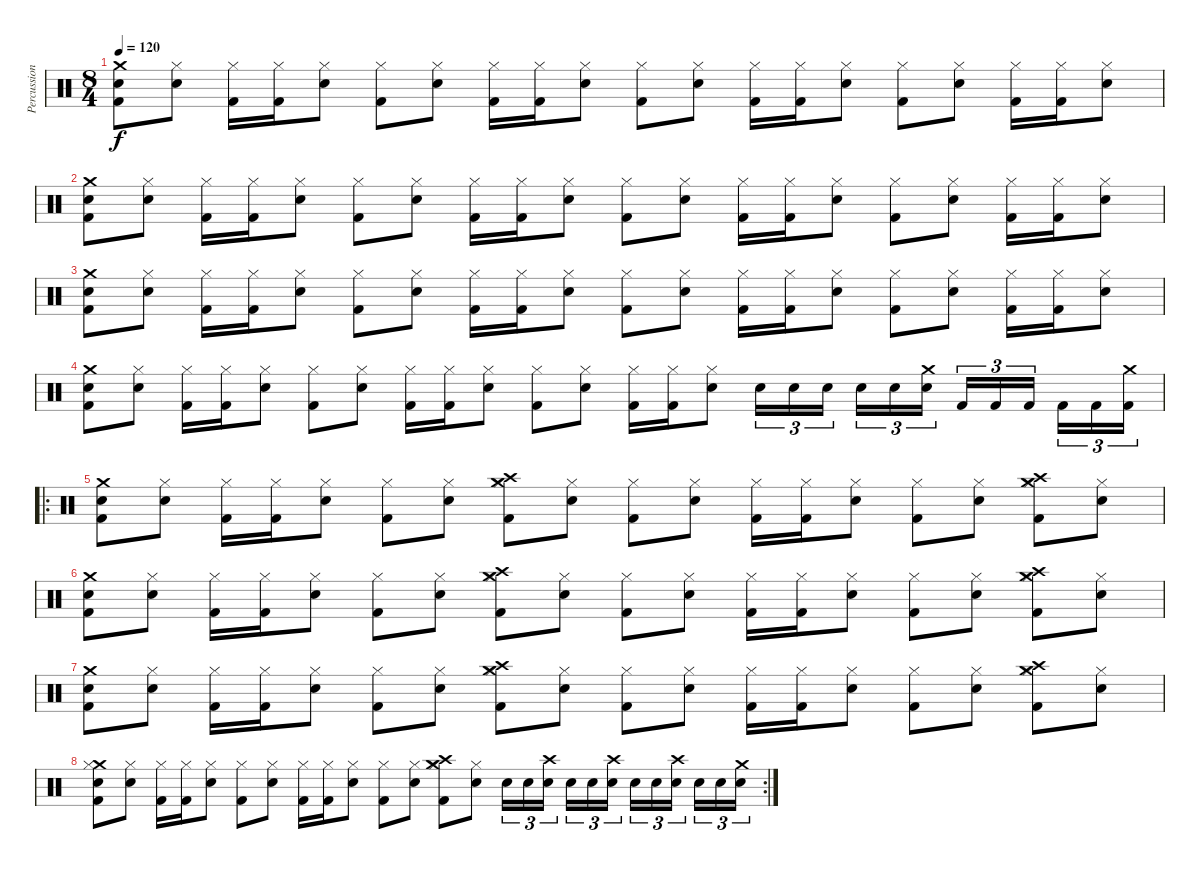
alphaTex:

\track ("Percussions" "Percussion") {instrument percussion}
\staff {score}
\articulation defaults
\ts (8 4)
\tempo 120
\clef neutral
\ks c
("Kick (hit) 2" "Crash medium (hit)" "Snare (hit) 2").8{dy f} ("Electric Snare (hit)" "Hi-Hat (closed)").8 ("Kick (hit) 2" "Hi-Hat (closed)").16 ("Kick (hit) 2" "Hi-Hat (closed)").16 ("Electric Snare (hit)" "Hi-Hat (closed)").8 ("Kick (hit) 2" "Hi-Hat (closed)").8 ("Electric Snare (hit)" "Hi-Hat (closed)").8 ("Kick (hit) 2" "Hi-Hat (closed)").16 ("Kick (hit) 2" "Hi-Hat (closed)").16 ("Electric Snare (hit)" "Hi-Hat (closed)").8 ("Kick (hit) 2" "Hi-Hat (closed)").8 ("Electric Snare (hit)" "Hi-Hat (closed)").8 ("Kick (hit) 2" "Hi-Hat (closed)").16 ("Kick (hit) 2" "Hi-Hat (closed)").16 ("Electric Snare (hit)" "Hi-Hat (closed)").8 ("Kick (hit) 2" "Hi-Hat (closed)").8 ("Electric Snare (hit)" "Hi-Hat (closed)").8 ("Kick (hit) 2" "Hi-Hat (closed)").16 ("Kick (hit) 2" "Hi-Hat (closed)").16 ("Electric Snare (hit)" "Hi-Hat (closed)").8 |
("Kick (hit) 2" "Crash medium (hit)" "Snare (hit) 2").8 ("Electric Snare (hit)" "Hi-Hat (closed)").8 ("Kick (hit) 2" "Hi-Hat (closed)").16 ("Kick (hit) 2" "Hi-Hat (closed)").16 ("Electric Snare (hit)" "Hi-Hat (closed)").8 ("Kick (hit) 2" "Hi-Hat (closed)").8 ("Electric Snare (hit)" "Hi-Hat (closed)").8 ("Kick (hit) 2" "Hi-Hat (closed)").16 ("Kick (hit) 2" "Hi-Hat (closed)").16 ("Electric Snare (hit)" "Hi-Hat (closed)").8 ("Kick (hit) 2" "Hi-Hat (closed)").8 ("Electric Snare (hit)" "Hi-Hat (closed)").8 ("Kick (hit) 2" "Hi-Hat (closed)").16 ("Kick (hit) 2" "Hi-Hat (closed)").16 ("Electric Snare (hit)" "Hi-Hat (closed)").8 ("Kick (hit) 2" "Hi-Hat (closed)").8 ("Electric Snare (hit)" "Hi-Hat (closed)").8 ("Kick (hit) 2" "Hi-Hat (closed)").16 ("Kick (hit) 2" "Hi-Hat (closed)").16 ("Electric Snare (hit)" "Hi-Hat (closed)").8 |
("Kick (hit) 2" "Crash medium (hit)" "Snare (hit) 2").8 ("Electric Snare (hit)" "Hi-Hat (closed)").8 ("Kick (hit) 2" "Hi-Hat (closed)").16 ("Kick (hit) 2" "Hi-Hat (closed)").16 ("Electric Snare (hit)" "Hi-Hat (closed)").8 ("Kick (hit) 2" "Hi-Hat (closed)").8 ("Electric Snare (hit)" "Hi-Hat (closed)").8 ("Kick (hit) 2" "Hi-Hat (closed)").16 ("Kick (hit) 2" "Hi-Hat (closed)").16 ("Electric Snare (hit)" "Hi-Hat (closed)").8 ("Kick (hit) 2" "Hi-Hat (closed)").8 ("Electric Snare (hit)" "Hi-Hat (closed)").8 ("Kick (hit) 2" "Hi-Hat (closed)").16 ("Kick (hit) 2" "Hi-Hat (closed)").16 ("Electric Snare (hit)" "Hi-Hat (closed)").8 ("Kick (hit) 2" "Hi-Hat (closed)").8 ("Electric Snare (hit)" "Hi-Hat (closed)").8 ("Kick (hit) 2" "Hi-Hat (closed)").16 ("Kick (hit) 2" "Hi-Hat (closed)").16 ("Electric Snare (hit)" "Hi-Hat (closed)").8 |
("Kick (hit) 2" "Snare (hit) 2" "Crash medium (hit)").8 ("Electric Snare (hit)" "Hi-Hat (closed)").8 ("Kick (hit) 2" "Hi-Hat (closed)").16 ("Kick (hit) 2" "Hi-Hat (closed)").16 ("Electric Snare (hit)" "Hi-Hat (closed)").8 ("Kick (hit) 2" "Hi-Hat (closed)").8 ("Electric Snare (hit)" "Hi-Hat (closed)").8 ("Kick (hit) 2" "Hi-Hat (closed)").16 ("Kick (hit) 2" "Hi-Hat (closed)").16 ("Electric Snare (hit)" "Hi-Hat (closed)").8 ("Kick (hit) 2" "Hi-Hat (closed)").8 ("Electric Snare (hit)" "Hi-Hat (closed)").8 ("Kick (hit) 2" "Hi-Hat (closed)").16 ("Kick (hit) 2" "Hi-Hat (closed)").16 ("Electric Snare (hit)" "Hi-Hat (closed)").8 "Snare (hit) 2".16{tu (3 2)} "Snare (hit) 2".16{tu (3 2)} "Snare (hit) 2".16{tu (3 2)} "Snare (hit) 2".16{tu (3 2)} "Snare (hit) 2".16{tu (3 2)} ("Snare (hit) 2" "Crash medium (hit)").16{tu (3 2)} "Kick (hit) 2".16{tu (3 2)} "Kick (hit) 2".16{tu (3 2)} "Kick (hit) 2".16{tu (3 2)} "Kick (hit) 2".16{tu (3 2)} "Kick (hit) 2".16{tu (3 2)} ("Kick (hit) 2" "Crash medium (hit)").16{tu (3 2)} |
\ro
("Kick (hit) 2" "Crash medium (hit)" "Snare (hit) 2").8 ("Electric Snare (hit)" "Hi-Hat (closed)").8 ("Kick (hit) 2" "Hi-Hat (closed)").16 ("Kick (hit) 2" "Hi-Hat (closed)").16 ("Electric Snare (hit)" "Hi-Hat (closed)").8 ("Kick (hit) 2" "Hi-Hat (closed)").8 ("Electric Snare (hit)" "Hi-Hat (closed)").8 ("Kick (hit) 2" "Crash medium (hit)" "Crash high (hit)" "Hi-Hat (closed)").8 ("Electric Snare (hit)" "Hi-Hat (closed)").8 ("Kick (hit) 2" "Hi-Hat (closed)").8 ("Electric Snare (hit)" "Hi-Hat (closed)").8 ("Kick (hit) 2" "Hi-Hat (closed)").16 ("Kick (hit) 2" "Hi-Hat (closed)").16 ("Electric Snare (hit)" "Hi-Hat (closed)").8 ("Kick (hit) 2" "Hi-Hat (closed)").8 ("Electric Snare (hit)" "Hi-Hat (closed)").8 ("Kick (hit) 2" "Crash medium (hit)" "Crash high (hit)" "Hi-Hat (closed)").8 ("Electric Snare (hit)" "Hi-Hat (closed)").8 |
("Kick (hit) 2" "Crash medium (hit)" "Snare (hit) 2").8 ("Electric Snare (hit)" "Hi-Hat (closed)").8 ("Kick (hit) 2" "Hi-Hat (closed)").16 ("Kick (hit) 2" "Hi-Hat (closed)").16 ("Electric Snare (hit)" "Hi-Hat (closed)").8 ("Kick (hit) 2" "Hi-Hat (closed)").8 ("Electric Snare (hit)" "Hi-Hat (closed)").8 ("Kick (hit) 2" "Crash medium (hit)" "Crash high (hit)" "Hi-Hat (closed)").8 ("Electric Snare (hit)" "Hi-Hat (closed)").8 ("Kick (hit) 2" "Hi-Hat (closed)").8 ("Electric Snare (hit)" "Hi-Hat (closed)").8 ("Kick (hit) 2" "Hi-Hat (closed)").16 ("Kick (hit) 2" "Hi-Hat (closed)").16 ("Electric Snare (hit)" "Hi-Hat (closed)").8 ("Kick (hit) 2" "Hi-Hat (closed)").8 ("Electric Snare (hit)" "Hi-Hat (closed)").8 ("Kick (hit) 2" "Crash medium (hit)" "Crash high (hit)" "Hi-Hat (closed)").8 ("Electric Snare (hit)" "Hi-Hat (closed)").8 |
("Kick (hit) 2" "Crash medium (hit)" "Snare (hit) 2").8 ("Electric Snare (hit)" "Hi-Hat (closed)").8 ("Kick (hit) 2" "Hi-Hat (closed)").16 ("Kick (hit) 2" "Hi-Hat (closed)").16 ("Electric Snare (hit)" "Hi-Hat (closed)").8 ("Kick (hit) 2" "Hi-Hat (closed)").8 ("Electric Snare (hit)" "Hi-Hat (closed)").8 ("Kick (hit) 2" "Crash medium (hit)" "Crash high (hit)" "Hi-Hat (closed)").8 ("Electric Snare (hit)" "Hi-Hat (closed)").8 ("Kick (hit) 2" "Hi-Hat (closed)").8 ("Electric Snare (hit)" "Hi-Hat (closed)").8 ("Kick (hit) 2" "Hi-Hat (closed)").16 ("Kick (hit) 2" "Hi-Hat (closed)").16 ("Electric Snare (hit)" "Hi-Hat (closed)").8 ("Kick (hit) 2" "Hi-Hat (closed)").8 ("Electric Snare (hit)" "Hi-Hat (closed)").8 ("Kick (hit) 2" "Crash medium (hit)" "Crash high (hit)" "Hi-Hat (closed)").8 ("Electric Snare (hit)" "Hi-Hat (closed)").8 |
\rc 2
("Kick (hit) 2" "Snare (hit) 2" "Crash medium (hit)" "Hi-Hat (closed)").8 ("Electric Snare (hit)" "Hi-Hat (closed)").8 ("Kick (hit) 2" "Hi-Hat (closed)").16 ("Kick (hit) 2" "Hi-Hat (closed)").16 ("Electric Snare (hit)" "Hi-Hat (closed)").8 ("Kick (hit) 2" "Hi-Hat (closed)").8 ("Electric Snare (hit)" "Hi-Hat (closed)").8 ("Kick (hit) 2" "Hi-Hat (closed)").16 ("Kick (hit) 2" "Hi-Hat (closed)").16 ("Electric Snare (hit)" "Hi-Hat (closed)").8 ("Kick (hit) 2" "Hi-Hat (closed)").8 ("Electric Snare (hit)" "Hi-Hat (closed)").8 ("Kick (hit) 2" "Crash medium (hit)" "Crash high (hit)" "Hi-Hat (closed)").8 ("Electric Snare (hit)" "Hi-Hat (closed)").8 "Snare (hit) 2".16{tu (3 2)} "Snare (hit) 2".16{tu (3 2)} ("Snare (hit) 2" "Crash high (hit)").16{tu (3 2)} "Snare (hit) 2".16{tu (3 2)} "Snare (hit) 2".16{tu (3 2)} ("Snare (hit) 2" "Crash high (hit)").16{tu (3 2)} "Electric Snare (hit)".16{tu (3 2)} "Electric Snare (hit)".16{tu (3 2)} ("Electric Snare (hit)" "Crash high (hit)").16{tu (3 2)} "Electric Snare (hit)".16{tu (3 2)} "Electric Snare (hit)".16{tu (3 2)} ("Electric Snare (hit)" "Crash medium (hit)").16{tu (3 2)}
